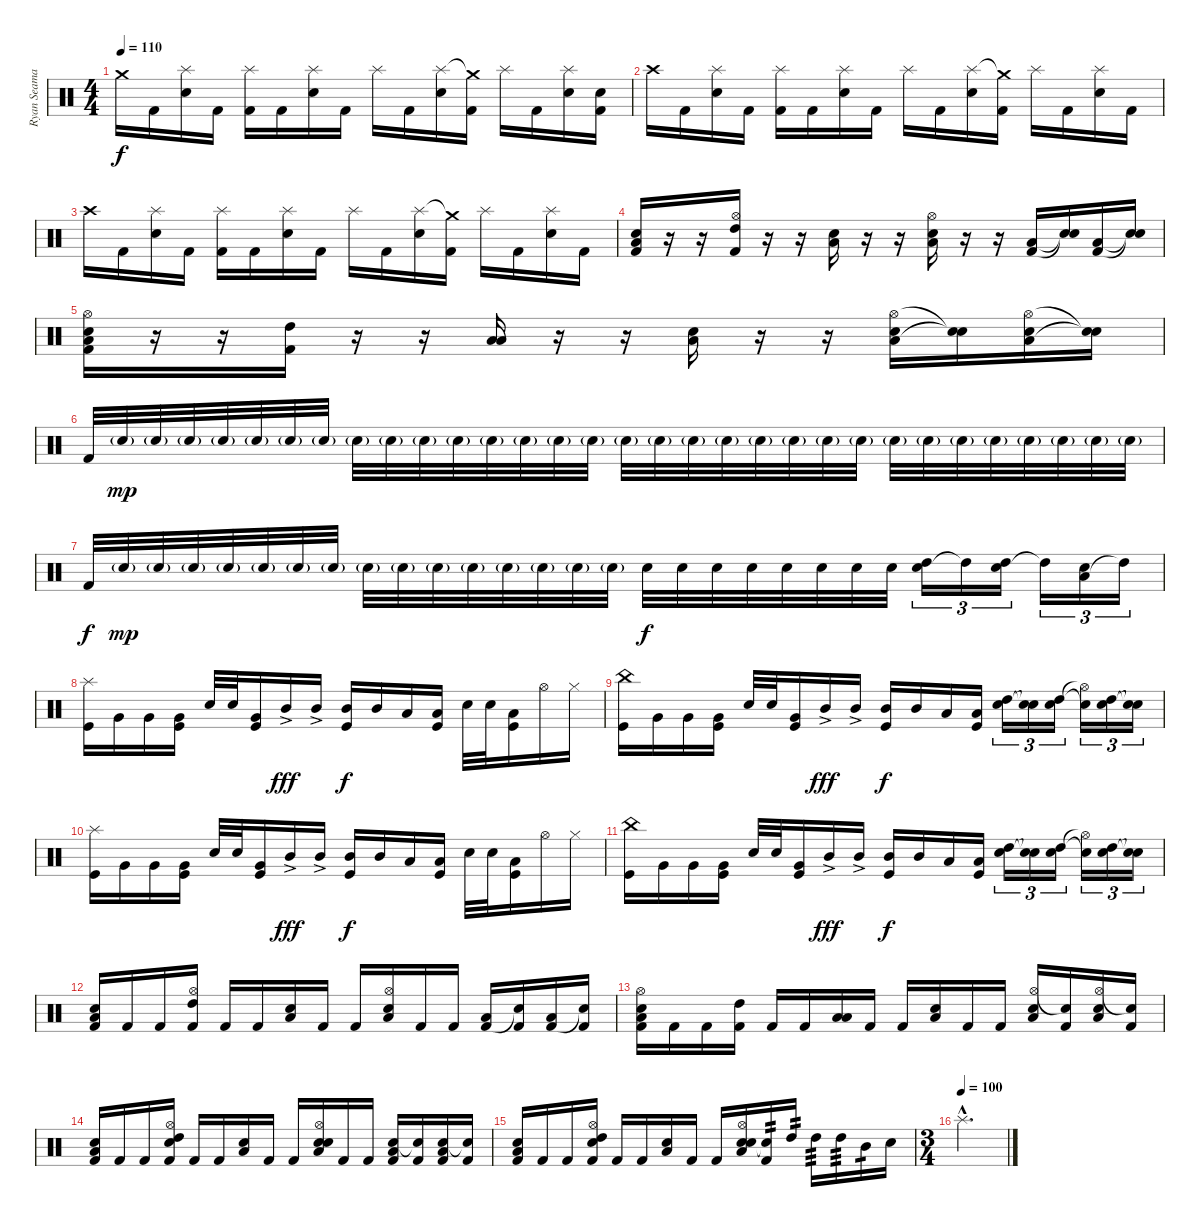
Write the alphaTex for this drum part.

\track ("Ryan Seaman-Drums" "Ryan Seama") {instrument percussion}
\staff {score}
\articulation defaults
\ts (4 4)
\tempo 110
\clef neutral
\ks c "Crash medium (hit)".16{dy f} "Kick (hit) 2".16
("Splash (hit)" "Electric Snare (hit)").16 "Kick (hit) 2".16 ("Splash (hit)" "Kick (hit) 2").16 "Kick (hit) 2".16 ("Splash (hit)" "Electric Snare (hit)").16 "Kick (hit) 2".16 "Splash (hit)".16 "Kick (hit) 2".16 ("Splash (hit)" "Electric Snare (hit)").16 ("Crash medium (hit)"{t} "Kick (hit) 2").16 "Splash (hit)".16 "Kick (hit) 2".16 ("Electric Snare (hit)" "Splash (hit)").16 ("Electric Snare (hit)" "Kick (hit) 2").16 |
"Crash high (hit)".16 "Kick (hit) 2".16 ("Splash (hit)" "Electric Snare (hit)").16 "Kick (hit) 2".16 ("Splash (hit)" "Kick (hit) 2").16 "Kick (hit) 2".16 ("Splash (hit)" "Electric Snare (hit)").16 "Kick (hit) 2".16 "Splash (hit)".16 "Kick (hit) 2".16 ("Splash (hit)" "Electric Snare (hit)").16 ("Crash medium (hit)"{t} "Kick (hit) 2").16 "Splash (hit)".16 "Kick (hit) 2".16 ("Electric Snare (hit)" "Splash (hit)").16 "Kick (hit) 2".16 |
"Crash high (hit)".16 "Kick (hit) 2".16 ("Splash (hit)" "Electric Snare (hit)").16 "Kick (hit) 2".16 ("Splash (hit)" "Kick (hit) 2").16 "Kick (hit) 2".16 ("Splash (hit)" "Electric Snare (hit)").16 "Kick (hit) 2".16 "Splash (hit)".16 "Kick (hit) 2".16 ("Splash (hit)" "Electric Snare (hit)").16 ("Crash medium (hit)"{t} "Kick (hit) 2").16 "Splash (hit)".16 "Kick (hit) 2".16 ("Electric Snare (hit)" "Splash (hit)").16 "Kick (hit) 2".16 |
("Kick (hit) 2" "Low Tom (hit)" "Electric Snare (hit)").16 r.16 r.16 ("Hi-Hat (open)" "High Tom (hit)" "Kick (hit) 2").16 r.16 r.16 ("Low Tom (hit)" "Electric Snare (hit)").16 r.16 r.16 ("Hi-Hat (open)" "Low Floor Tom (hit)" "Electric Snare (hit)").16 r.16 r.16 ("Kick (hit) 2" "Low Floor Tom (hit)").16 ("Snare (hit)"{t} "Snare (hit)"{t}).16 ("Kick (hit) 2" "Low Floor Tom (hit)").16 ("Snare (hit)"{t} "Snare (hit)"{t}).16 |
("Hi-Hat (open)" "Kick (hit) 2" "Low Tom (hit)" "Electric Snare (hit)").16 r.16 r.16 ("High Tom (hit)" "Kick (hit) 2").16 r.16 r.16 ("Low Tom (hit)" "Low Floor Tom (hit)").16 r.16 r.16 ("Low Floor Tom (hit)" "Electric Snare (hit)").16 r.16 r.16 ("Hi-Hat (open)" "Low Floor Tom (hit)" "Electric Snare (hit)").16 ("Snare (hit)"{t} "Snare (hit)"{t}).16 ("Hi-Hat (open)" "Low Floor Tom (hit)" "Electric Snare (hit)").16 ("Snare (hit)"{t} "Snare (hit)"{t}).16 |
"Kick (hit) 2".32 "Electric Snare (hit)"{g}.32{dy mp} "Electric Snare (hit)"{g}.32 "Electric Snare (hit)"{g}.32 "Electric Snare (hit)"{g}.32 "Electric Snare (hit)"{g}.32 "Electric Snare (hit)"{g}.32 "Electric Snare (hit)"{g}.32 "Electric Snare (hit)"{g}.32 "Electric Snare (hit)"{g}.32 "Electric Snare (hit)"{g}.32 "Electric Snare (hit)"{g}.32 "Electric Snare (hit)"{g}.32 "Electric Snare (hit)"{g}.32 "Electric Snare (hit)"{g}.32 "Electric Snare (hit)"{g}.32 "Electric Snare (hit)"{g}.32 "Electric Snare (hit)"{g}.32 "Electric Snare (hit)"{g}.32 "Electric Snare (hit)"{g}.32 "Electric Snare (hit)"{g}.32 "Electric Snare (hit)"{g}.32 "Electric Snare (hit)"{g}.32 "Electric Snare (hit)"{g}.32 "Electric Snare (hit)"{g}.32 "Electric Snare (hit)"{g}.32 "Electric Snare (hit)"{g}.32 "Electric Snare (hit)"{g}.32 "Electric Snare (hit)"{g}.32 "Electric Snare (hit)"{g}.32 "Electric Snare (hit)"{g}.32 "Electric Snare (hit)"{g}.32 |
"Kick (hit) 2".32{dy f} "Electric Snare (hit)"{g}.32{dy mp} "Electric Snare (hit)"{g}.32 "Electric Snare (hit)"{g}.32 "Electric Snare (hit)"{g}.32 "Electric Snare (hit)"{g}.32 "Electric Snare (hit)"{g}.32 "Electric Snare (hit)"{g}.32 "Electric Snare (hit)"{g}.32 "Electric Snare (hit)"{g}.32 "Electric Snare (hit)"{g}.32 "Electric Snare (hit)"{g}.32 "Electric Snare (hit)"{g}.32 "Electric Snare (hit)"{g}.32 "Electric Snare (hit)"{g}.32 "Electric Snare (hit)"{g}.32 "Electric Snare (hit)".32{dy f} "Electric Snare (hit)".32 "Electric Snare (hit)".32 "Electric Snare (hit)".32 "Electric Snare (hit)".32 "Electric Snare (hit)".32 "Electric Snare (hit)".32 "Electric Snare (hit)".32 ("Electric Snare (hit)" "High Tom (hit)").16{tu (3 2)} "High Tom (hit)"{t}.16{tu (3 2)} ("Electric Snare (hit)" "High Tom (hit)").16{tu (3 2)} "High Tom (hit)"{t}.16{tu (3 2)} ("Low Floor Tom (hit)" "Electric Snare (hit)").16{tu (3 2)} "High Tom (hit)"{t}.16{tu (3 2)} |
("Splash (hit)" "Kick (hit)").16 "Very Low Tom (hit)".16 "Very Low Tom (hit)".16 ("Very Low Tom (hit)" "Kick (hit)").16 "Electric Snare (hit)".32 "Electric Snare (hit)".32 ("Very Low Tom (hit)" "Kick (hit)").16 "Mid Tom (hit)"{ac}.16{dy fff} "Mid Tom (hit)"{ac}.16 ("Mid Tom (hit)" "Kick (hit)").16{dy f} "Mid Tom (hit)".16 "Low Floor Tom (hit)".16 ("Low Floor Tom (hit)" "Kick (hit)").16 "Electric Snare (hit)".32 "Electric Snare (hit)".32 ("Low Floor Tom (hit)" "Kick (hit)").16 "Hi-Hat (open)".16 "Hi-Hat (closed)".16 |
("China (hit)" "Kick (hit)").16 "Very Low Tom (hit)".16 "Very Low Tom (hit)".16 ("Very Low Tom (hit)" "Kick (hit)").16 "Electric Snare (hit)".32 "Electric Snare (hit)".32 ("Very Low Tom (hit)" "Kick (hit)").16 "Mid Tom (hit)"{ac}.16{dy fff} "Mid Tom (hit)"{ac}.16 ("Mid Tom (hit)" "Kick (hit)").16{dy f} "Mid Tom (hit)".16 "Low Floor Tom (hit)".16 ("Low Floor Tom (hit)" "Kick (hit)").16 ("Electric Snare (hit)" "High Tom (hit)").16{tu (3 2)} ("Electric Snare (hit)"{t} "Snare (hit)"{t}).16{tu (3 2)} ("Electric Snare (hit)" "High Tom (hit)").16{tu (3 2)} ("Hi-Hat (open)"{t} "Snare (hit)"{t}).16{tu (3 2)} ("Electric Snare (hit)" "High Tom (hit)").16{tu (3 2)} ("Snare (hit)"{t} "Snare (hit)"{t}).16{tu (3 2)} |
("Splash (hit)" "Kick (hit)").16 "Very Low Tom (hit)".16 "Very Low Tom (hit)".16 ("Very Low Tom (hit)" "Kick (hit)").16 "Electric Snare (hit)".32 "Electric Snare (hit)".32 ("Very Low Tom (hit)" "Kick (hit)").16 "Mid Tom (hit)"{ac}.16{dy fff} "Mid Tom (hit)"{ac}.16 ("Mid Tom (hit)" "Kick (hit)").16{dy f} "Mid Tom (hit)".16 "Low Floor Tom (hit)".16 ("Low Floor Tom (hit)" "Kick (hit)").16 "Electric Snare (hit)".32 "Electric Snare (hit)".32 ("Low Floor Tom (hit)" "Kick (hit)").16 "Hi-Hat (open)".16 "Hi-Hat (closed)".16 |
("China (hit)" "Kick (hit)").16 "Very Low Tom (hit)".16 "Very Low Tom (hit)".16 ("Very Low Tom (hit)" "Kick (hit)").16 "Electric Snare (hit)".32 "Electric Snare (hit)".32 ("Very Low Tom (hit)" "Kick (hit)").16 "Mid Tom (hit)"{ac}.16{dy fff} "Mid Tom (hit)"{ac}.16 ("Mid Tom (hit)" "Kick (hit)").16{dy f} "Mid Tom (hit)".16 "Low Floor Tom (hit)".16 ("Low Floor Tom (hit)" "Kick (hit)").16 ("Electric Snare (hit)" "High Tom (hit)").16{tu (3 2)} ("Electric Snare (hit)"{t} "Snare (hit)"{t}).16{tu (3 2)} ("Electric Snare (hit)" "High Tom (hit)").16{tu (3 2)} ("Hi-Hat (open)"{t} "Snare (hit)"{t}).16{tu (3 2)} ("Electric Snare (hit)" "High Tom (hit)").16{tu (3 2)} ("Snare (hit)"{t} "Snare (hit)"{t}).16{tu (3 2)} |
("Kick (hit) 2" "Low Tom (hit)" "Electric Snare (hit)").16 "Kick (hit) 2".16 "Kick (hit) 2".16 ("Hi-Hat (open)" "High Tom (hit)" "Kick (hit) 2").16 "Kick (hit) 2".16 "Kick (hit) 2".16 ("Low Tom (hit)" "Electric Snare (hit)").16 "Kick (hit) 2".16 "Kick (hit) 2".16 ("Hi-Hat (open)" "Low Floor Tom (hit)" "Electric Snare (hit)").16 "Kick (hit) 2".16 "Kick (hit) 2".16 ("Kick (hit) 2" "Low Floor Tom (hit)").16 ("Snare (hit)"{t} "Kick (hit) 2").16 ("Kick (hit) 2" "Low Floor Tom (hit)").16 ("Snare (hit)"{t} "Kick (hit) 2").16 |
("Hi-Hat (open)" "Kick (hit) 2" "Low Tom (hit)" "Electric Snare (hit)").16 "Kick (hit) 2".16 "Kick (hit) 2".16 ("High Tom (hit)" "Kick (hit) 2").16 "Kick (hit) 2".16 "Kick (hit) 2".16 ("Low Tom (hit)" "Low Floor Tom (hit)").16 "Kick (hit) 2".16 "Kick (hit) 2".16 ("Low Floor Tom (hit)" "Electric Snare (hit)").16 "Kick (hit) 2".16 "Kick (hit) 2".16 ("Hi-Hat (open)" "Low Floor Tom (hit)" "Electric Snare (hit)").16 ("Snare (hit)"{t} "Kick (hit) 2").16 ("Hi-Hat (open)" "Low Floor Tom (hit)" "Electric Snare (hit)").16 ("Snare (hit)"{t} "Kick (hit) 2").16 |
("Kick (hit) 2" "Low Tom (hit)" "Electric Snare (hit)").16 "Kick (hit) 2".16 "Kick (hit) 2".16 ("Electric Snare (hit)" "Hi-Hat (open)" "High Tom (hit)" "Kick (hit) 2").16 "Kick (hit) 2".16 "Kick (hit) 2".16 ("Low Tom (hit)" "Electric Snare (hit)").16 "Kick (hit) 2".16 "Kick (hit) 2".16 ("Electric Snare (hit)" "Hi-Hat (open)" "Low Floor Tom (hit)" "Electric Snare (hit)").16 "Kick (hit) 2".16 "Kick (hit) 2".16 ("Electric Snare (hit)" "Kick (hit) 2" "Low Floor Tom (hit)").16 ("Snare (hit)"{t} "Kick (hit) 2").16 ("Electric Snare (hit)" "Kick (hit) 2" "Low Floor Tom (hit)").16 ("Snare (hit)"{t} "Kick (hit) 2").16 |
("Kick (hit) 2" "Low Tom (hit)" "Electric Snare (hit)").16 "Kick (hit) 2".16 "Kick (hit) 2".16 ("Electric Snare (hit)" "Hi-Hat (open)" "High Tom (hit)" "Kick (hit) 2").16 "Kick (hit) 2".16 "Kick (hit) 2".16 ("Low Tom (hit)" "Electric Snare (hit)").16 "Kick (hit) 2".16 "Kick (hit) 2".16 ("Electric Snare (hit)" "Hi-Hat (open)" "Low Floor Tom (hit)" "Electric Snare (hit)").16 ("Snare (hit)"{t} "Kick (hit) 2").16{tp 2} "High Tom (hit)".16{tp 2} "High Tom (hit)".16{tp 3} "High Tom (hit)".16{tp 3} "Mid Tom (hit)".16{tp 1} "Electric Snare (hit)".16 |
\ts (3 4)
\tempo (100)
"Splash (hit)"{hac}.2{d}
